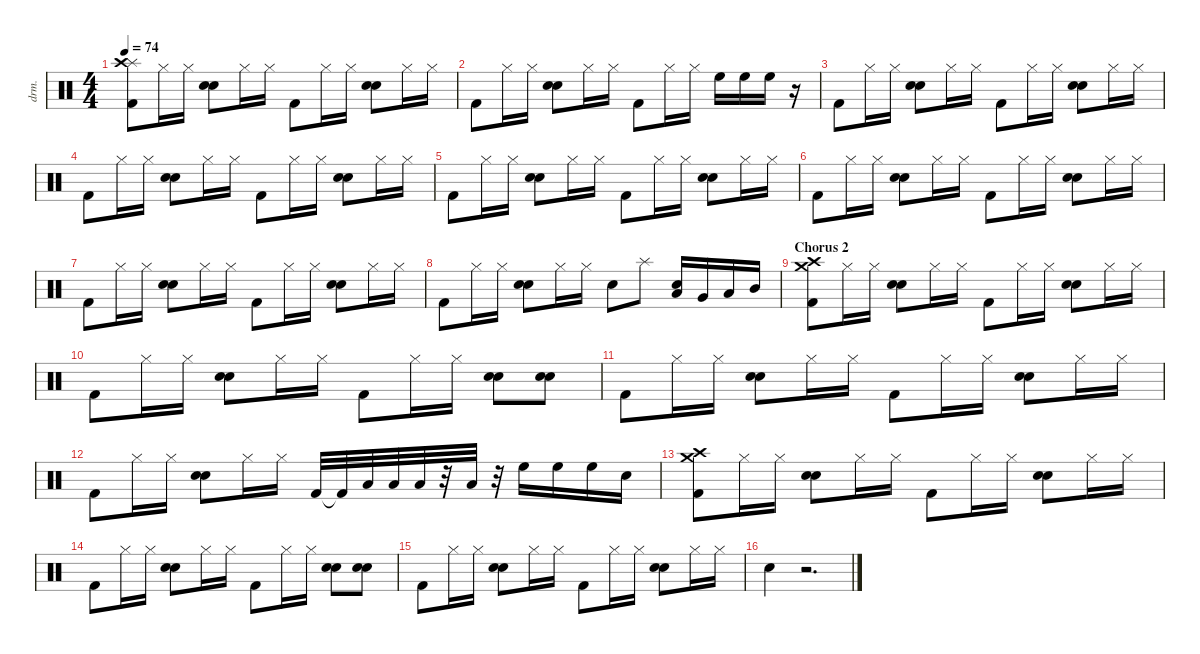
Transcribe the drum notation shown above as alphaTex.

\defaultSystemsLayout 4
\hideDynamics
\bracketExtendMode nobrackets
\otherSystemsTrackNameOrientation horizontal
\track ("Percussion" "drm.") {instrument percussion}
\staff {score}
\articulation defaults
\ts (4 4)
\tempo 74
\clef neutral
\ks c
("Splash (hit)" "Crash high (hit)" "Kick (hit) 2").8{dy f} "Hi-Hat (closed)".16 "Hi-Hat (closed)".16 ("Snare (hit) 2" "Snare (hit) 2").8 "Hi-Hat (closed)".16 "Hi-Hat (closed)".16 "Kick (hit) 2".8 "Hi-Hat (closed)".16 "Hi-Hat (closed)".16 ("Snare (hit) 2" "Snare (hit) 2").8 "Hi-Hat (closed)".16 "Hi-Hat (closed)".16 |
"Kick (hit) 2".8 "Hi-Hat (closed)".16 "Hi-Hat (closed)".16 ("Snare (hit) 2" "Snare (hit) 2").8 "Hi-Hat (closed)".16 "Hi-Hat (closed)".16 "Kick (hit) 2".8 "Hi-Hat (closed)".16 "Hi-Hat (closed)".16 "High Floor Tom (hit)".16 "High Floor Tom (hit)".16 "High Floor Tom (hit)".16 r.16 |
"Kick (hit) 2".8 "Hi-Hat (closed)".16 "Hi-Hat (closed)".16 ("Snare (hit) 2" "Snare (hit) 2").8 "Hi-Hat (closed)".16 "Hi-Hat (closed)".16 "Kick (hit) 2".8 "Hi-Hat (closed)".16 "Hi-Hat (closed)".16 ("Snare (hit) 2" "Snare (hit) 2").8 "Hi-Hat (closed)".16 "Hi-Hat (closed)".16 |
"Kick (hit) 2".8 "Hi-Hat (closed)".16 "Hi-Hat (closed)".16 ("Snare (hit) 2" "Snare (hit) 2").8 "Hi-Hat (closed)".16 "Hi-Hat (closed)".16 "Kick (hit) 2".8 "Hi-Hat (closed)".16 "Hi-Hat (closed)".16 ("Snare (hit) 2" "Snare (hit) 2").8 "Hi-Hat (closed)".16 "Hi-Hat (closed)".16 |
"Kick (hit) 2".8 "Hi-Hat (closed)".16 "Hi-Hat (closed)".16 ("Snare (hit) 2" "Snare (hit) 2").8 "Hi-Hat (closed)".16 "Hi-Hat (closed)".16 "Kick (hit) 2".8 "Hi-Hat (closed)".16 "Hi-Hat (closed)".16 ("Snare (hit) 2" "Snare (hit) 2").8 "Hi-Hat (closed)".16 "Hi-Hat (closed)".16 |
"Kick (hit) 2".8 "Hi-Hat (closed)".16 "Hi-Hat (closed)".16 ("Snare (hit) 2" "Snare (hit) 2").8 "Hi-Hat (closed)".16 "Hi-Hat (closed)".16 "Kick (hit) 2".8 "Hi-Hat (closed)".16 "Hi-Hat (closed)".16 ("Snare (hit) 2" "Snare (hit) 2").8 "Hi-Hat (closed)".16 "Hi-Hat (closed)".16 |
"Kick (hit) 2".8 "Hi-Hat (closed)".16 "Hi-Hat (closed)".16 ("Snare (hit) 2" "Snare (hit) 2").8 "Hi-Hat (closed)".16 "Hi-Hat (closed)".16 "Kick (hit) 2".8 "Hi-Hat (closed)".16 "Hi-Hat (closed)".16 ("Snare (hit) 2" "Snare (hit) 2").8 "Hi-Hat (closed)".16 "Hi-Hat (closed)".16 |
"Kick (hit) 2".8 "Hi-Hat (closed)".16 "Hi-Hat (closed)".16 ("Snare (hit) 2" "Snare (hit) 2").8 "Hi-Hat (closed)".16 "Hi-Hat (closed)".16 "Snare (hit) 2".8 "Splash (hit)".8 ("Low Floor Tom (hit)" "Snare (hit) 2").16 "Very Low Tom (hit)".16 "Low Tom (hit)".16 "Mid Tom (hit)".16 |
\section ("" "Chorus 2")
("Crash medium (hit)" "Crash high (hit)" "Kick (hit) 2").8 "Hi-Hat (closed)".16 "Hi-Hat (closed)".16 ("Snare (hit) 2" "Snare (hit) 2").8 "Hi-Hat (closed)".16 "Hi-Hat (closed)".16 "Kick (hit) 2".8 "Hi-Hat (closed)".16 "Hi-Hat (closed)".16 ("Snare (hit) 2" "Snare (hit) 2").8 "Hi-Hat (closed)".16 "Hi-Hat (closed)".16 |
"Kick (hit) 2".8 "Hi-Hat (closed)".16 "Hi-Hat (closed)".16 ("Snare (hit) 2" "Snare (hit) 2").8 "Hi-Hat (closed)".16 "Hi-Hat (closed)".16 "Kick (hit) 2".8 "Hi-Hat (closed)".16 "Hi-Hat (closed)".16 ("Snare (hit) 2" "Snare (hit) 2").8 ("Snare (hit) 2" "Snare (hit) 2").8 |
"Kick (hit) 2".8 "Hi-Hat (closed)".16 "Hi-Hat (closed)".16 ("Snare (hit) 2" "Snare (hit) 2").8 "Hi-Hat (closed)".16 "Hi-Hat (closed)".16 "Kick (hit) 2".8 "Hi-Hat (closed)".16 "Hi-Hat (closed)".16 ("Snare (hit) 2" "Snare (hit) 2").8 "Hi-Hat (closed)".16 "Hi-Hat (closed)".16 |
"Kick (hit) 2".8 "Hi-Hat (closed)".16 "Hi-Hat (closed)".16 ("Snare (hit) 2" "Snare (hit) 2").8 "Hi-Hat (closed)".16 "Hi-Hat (closed)".16 "Kick (hit) 2".32 "Kick (hit) 2"{t}.32 "Low Floor Tom (hit)".32 "Low Floor Tom (hit)".32 "Low Floor Tom (hit)".32 r.32 "Low Floor Tom (hit)".32 r.32 "High Floor Tom (hit)".16 "High Floor Tom (hit)".16 "High Floor Tom (hit)".16 "Snare (hit) 2".16 |
("Crash medium (hit)" "Crash high (hit)" "Kick (hit) 2").8{dy mp} "Hi-Hat (closed)".16{dy f} "Hi-Hat (closed)".16 ("Snare (hit) 2" "Snare (hit) 2").8 "Hi-Hat (closed)".16 "Hi-Hat (closed)".16 "Kick (hit) 2".8 "Hi-Hat (closed)".16 "Hi-Hat (closed)".16 ("Snare (hit) 2" "Snare (hit) 2").8 "Hi-Hat (closed)".16 "Hi-Hat (closed)".16 |
"Kick (hit) 2".8 "Hi-Hat (closed)".16 "Hi-Hat (closed)".16 ("Snare (hit) 2" "Snare (hit) 2").8 "Hi-Hat (closed)".16 "Hi-Hat (closed)".16 "Kick (hit) 2".8 "Hi-Hat (closed)".16 "Hi-Hat (closed)".16 ("Snare (hit) 2" "Snare (hit) 2").8 ("Snare (hit) 2" "Snare (hit) 2").8 |
"Kick (hit) 2".8 "Hi-Hat (closed)".16 "Hi-Hat (closed)".16 ("Snare (hit) 2" "Snare (hit) 2").8 "Hi-Hat (closed)".16 "Hi-Hat (closed)".16 "Kick (hit) 2".8 "Hi-Hat (closed)".16 "Hi-Hat (closed)".16 ("Snare (hit) 2" "Snare (hit) 2").8 "Hi-Hat (closed)".16 "Hi-Hat (closed)".16 |
"Snare (hit) 2".4{dy mf} r.2{d}
